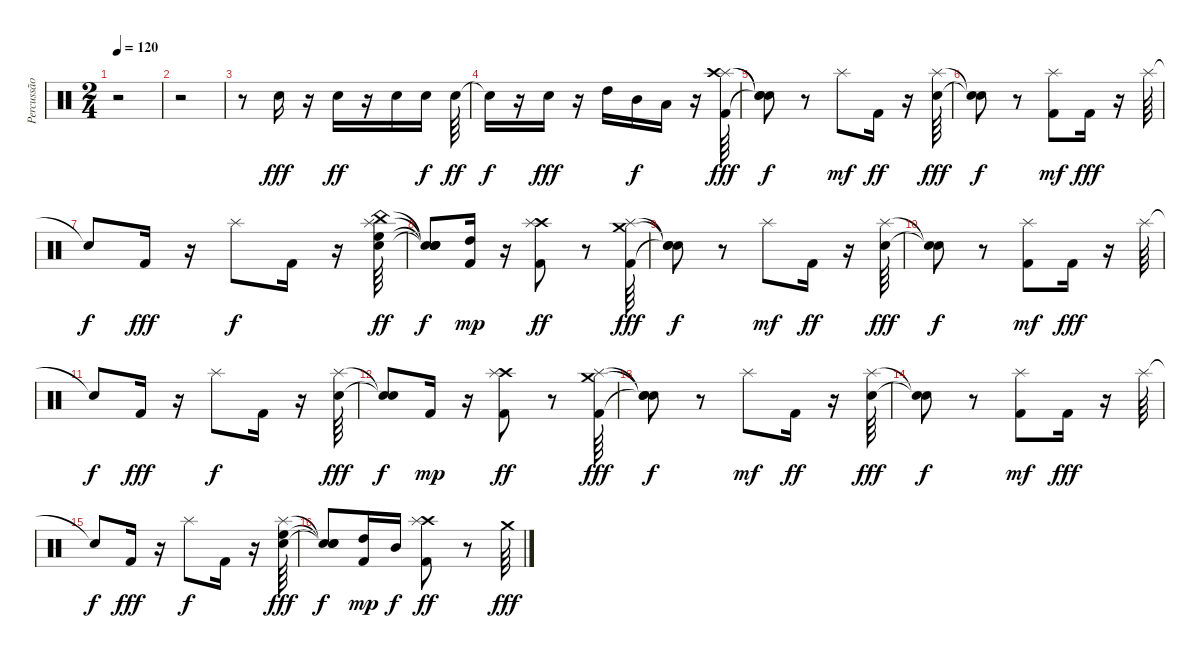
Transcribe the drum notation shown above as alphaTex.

\track ("Percussão" "Percussão") {instrument percussion}
\staff {score}
\articulation defaults
\ts (2 4)
\tempo 120
\clef neutral
\ks c
r.2{dy ff} |
r.2 |
r.8 "Snare (hit) 2".16{dy fff} r.16 "Snare (hit) 2".16{dy ff} r.16 "Snare (hit) 2".16 "Snare (hit) 2".16{dy f} "Snare (hit) 2".64{dy ff} |
"Snare (hit)"{t}.16{dy f} r.16 "Snare (hit) 2".16{dy fff} r.16 "High Tom (hit)".16 "Mid Tom (hit)".16{dy f} "Low Tom (hit)".16 r.16 ("Kick (hit) 2" "Splash (hit)" "Crash high (hit)").64{dy fff} |
("Snare (hit)"{t} "Snare (hit)"{t} "Snare (hit)"{t}).8{dy f} r.8 "Splash (hit)".8{dy mf} "Kick (hit) 2".16{dy ff} r.16 ("Snare (hit) 2" "Splash (hit)").64{dy fff} |
("Snare (hit)"{t} "Snare (hit)"{t}).8{dy f} r.8 ("Kick (hit) 2" "Splash (hit)").8{dy mf} "Kick (hit) 2".16{dy fff} r.16 "Splash (hit)".64 |
"Snare (hit)"{t}.8{dy f} "Kick (hit) 2".16{dy fff} r.16 "Splash (hit)".8{dy f} "Kick (hit) 2".16 r.16 ("Snare (hit) 2" "Splash (hit)" "High Floor Tom (hit)" "China (hit)").64{dy ff} |
("Snare (hit)"{t} "Snare (hit)"{t} "Snare (hit)"{t} "Snare (hit)"{t}).8{dy f} ("Kick (hit) 2" "High Tom (hit)").16{dy mp} r.16 ("Crash high (hit)" "Kick (hit) 2" "Splash (hit)").8{dy ff} r.8 ("Crash medium (hit)" "Kick (hit) 2" "Splash (hit)").64{dy fff} |
("Snare (hit)"{t} "Snare (hit)"{t} "Snare (hit)"{t}).8{dy f} r.8 "Splash (hit)".8{dy mf} "Kick (hit) 2".16{dy ff} r.16 ("Snare (hit) 2" "Splash (hit)").64{dy fff} |
("Snare (hit)"{t} "Snare (hit)"{t}).8{dy f} r.8 ("Kick (hit) 2" "Splash (hit)").8{dy mf} "Kick (hit) 2".16{dy fff} r.16 "Splash (hit)".64 |
"Snare (hit)"{t}.8{dy f} "Kick (hit) 2".16{dy fff} r.16 "Splash (hit)".8{dy f} "Kick (hit) 2".16 r.16 ("Snare (hit) 2" "Splash (hit)").64{dy fff} |
("Snare (hit)"{t} "Snare (hit)"{t}).8{dy f} "Kick (hit) 2".16{dy mp} r.16 ("Crash high (hit)" "Kick (hit) 2" "Splash (hit)").8{dy ff} r.8 ("Crash medium (hit)" "Kick (hit) 2" "Splash (hit)").64{dy fff} |
("Snare (hit)"{t} "Snare (hit)"{t} "Snare (hit)"{t}).8{dy f} r.8 "Splash (hit)".8{dy mf} "Kick (hit) 2".16{dy ff} r.16 ("Snare (hit) 2" "Splash (hit)").64{dy fff} |
("Snare (hit)"{t} "Snare (hit)"{t}).8{dy f} r.8 ("Kick (hit) 2" "Splash (hit)").8{dy mf} "Kick (hit) 2".16{dy fff} r.16 "Splash (hit)".64 |
"Snare (hit)"{t}.8{dy f} "Kick (hit) 2".16{dy fff} r.16 "Splash (hit)".8{dy f} "Kick (hit) 2".16 r.16 ("High Floor Tom (hit)" "Snare (hit) 2" "Splash (hit)").64{dy fff} |
("Snare (hit)"{t} "Snare (hit)"{t} "Snare (hit)"{t}).8{dy f} ("High Tom (hit)" "Kick (hit) 2").16{dy mp} "Mid Tom (hit)".16{dy f} ("Crash high (hit)" "Kick (hit) 2" "Splash (hit)").8{dy ff} r.8 "Crash medium (hit)".64{dy fff}
